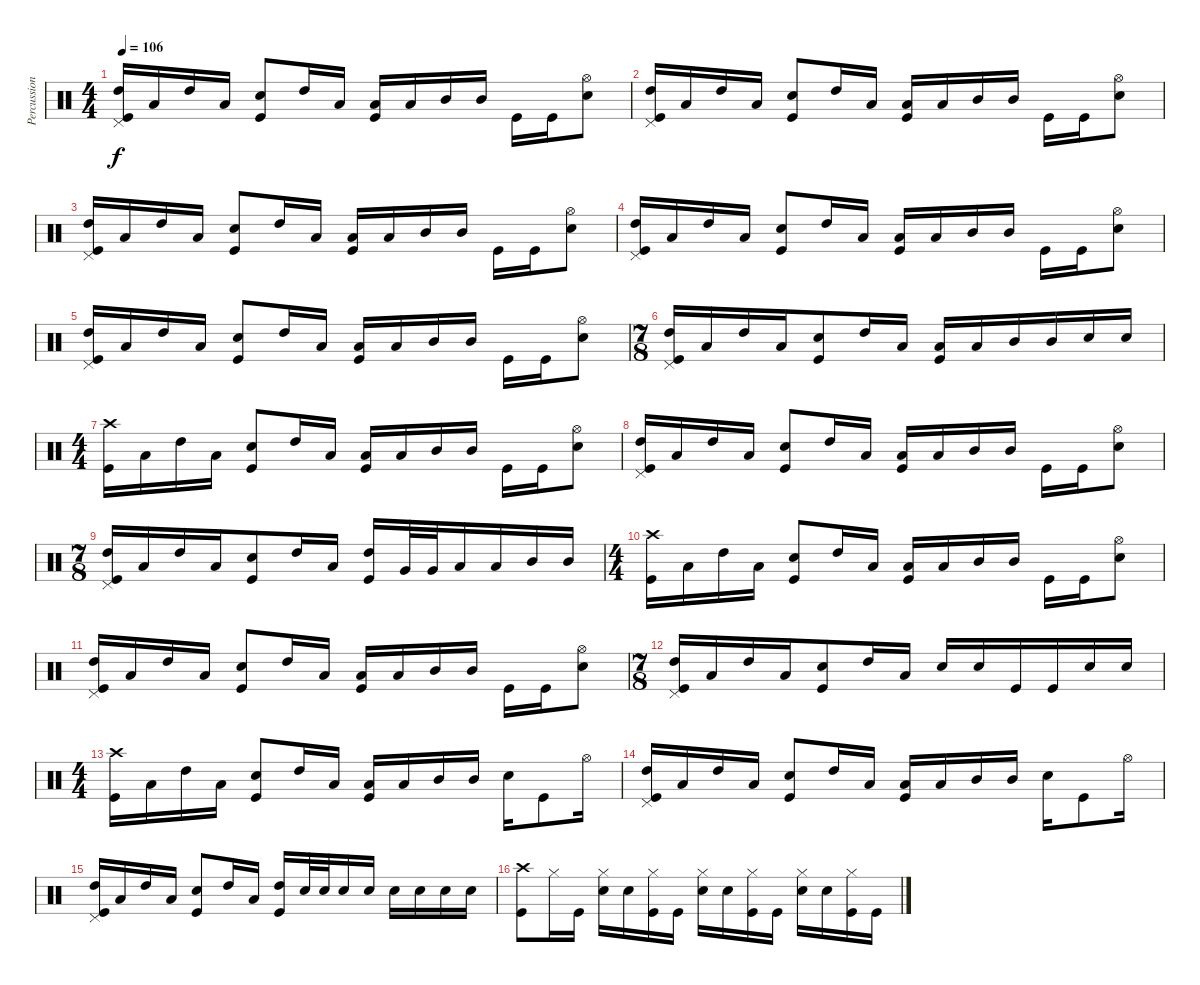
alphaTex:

\track ("Percussion" "Percussion") {instrument percussion}
\staff {score}
\articulation defaults
\ts (4 4)
\tempo 106
\clef neutral
\ks c
("High Tom (hit)" "Kick (hit)" "Pedal Hi-Hat (hit)").16{dy f} "Low Tom (hit)".16 "High Tom (hit)".16 "Low Tom (hit)".16 ("Snare (hit) 2" "Kick (hit)").8 "High Tom (hit)".16 "Low Tom (hit)".16 ("Kick (hit)" "Low Tom (hit)").16 "Low Tom (hit)".16 "Mid Tom (hit)".16 "Mid Tom (hit)".16 "Kick (hit)".16 "Kick (hit)".16 ("Snare (hit) 2" "Hi-Hat (open)").8 |
("High Tom (hit)" "Kick (hit)" "Pedal Hi-Hat (hit)").16 "Low Tom (hit)".16 "High Tom (hit)".16 "Low Tom (hit)".16 ("Snare (hit) 2" "Kick (hit)").8 "High Tom (hit)".16 "Low Tom (hit)".16 ("Kick (hit)" "Low Tom (hit)").16 "Low Tom (hit)".16 "Mid Tom (hit)".16 "Mid Tom (hit)".16 "Kick (hit)".16 "Kick (hit)".16 ("Snare (hit) 2" "Hi-Hat (open)").8 |
("High Tom (hit)" "Kick (hit)" "Pedal Hi-Hat (hit)").16 "Low Tom (hit)".16 "High Tom (hit)".16 "Low Tom (hit)".16 ("Snare (hit) 2" "Kick (hit)").8 "High Tom (hit)".16 "Low Tom (hit)".16 ("Kick (hit)" "Low Tom (hit)").16 "Low Tom (hit)".16 "Mid Tom (hit)".16 "Mid Tom (hit)".16 "Kick (hit)".16 "Kick (hit)".16 ("Snare (hit) 2" "Hi-Hat (open)").8 |
("High Tom (hit)" "Kick (hit)" "Pedal Hi-Hat (hit)").16 "Low Tom (hit)".16 "High Tom (hit)".16 "Low Tom (hit)".16 ("Snare (hit) 2" "Kick (hit)").8 "High Tom (hit)".16 "Low Tom (hit)".16 ("Kick (hit)" "Low Tom (hit)").16 "Low Tom (hit)".16 "Mid Tom (hit)".16 "Mid Tom (hit)".16 "Kick (hit)".16 "Kick (hit)".16 ("Snare (hit) 2" "Hi-Hat (open)").8 |
("High Tom (hit)" "Kick (hit)" "Pedal Hi-Hat (hit)").16 "Low Tom (hit)".16 "High Tom (hit)".16 "Low Tom (hit)".16 ("Snare (hit) 2" "Kick (hit)").8 "High Tom (hit)".16 "Low Tom (hit)".16 ("Kick (hit)" "Low Tom (hit)").16 "Low Tom (hit)".16 "Mid Tom (hit)".16 "Mid Tom (hit)".16 "Kick (hit)".16 "Kick (hit)".16 ("Snare (hit) 2" "Hi-Hat (open)").8 |
\ts (7 8)
("High Tom (hit)" "Kick (hit)" "Pedal Hi-Hat (hit)").16 "Low Tom (hit)".16 "High Tom (hit)".16 "Low Tom (hit)".16 ("Snare (hit) 2" "Kick (hit)").8 "High Tom (hit)".16 "Low Tom (hit)".16 ("Kick (hit)" "Low Tom (hit)").16 "Low Tom (hit)".16 "Mid Tom (hit)".16 "Mid Tom (hit)".16 "Snare (hit) 2".16 "Snare (hit) 2".16 |
\ts (4 4)
("Kick (hit)" "Crash high (hit)").16 "Low Tom (hit)".16 "High Tom (hit)".16 "Low Tom (hit)".16 ("Snare (hit) 2" "Kick (hit)").8 "High Tom (hit)".16 "Low Tom (hit)".16 ("Kick (hit)" "Low Tom (hit)").16 "Low Tom (hit)".16 "Mid Tom (hit)".16 "Mid Tom (hit)".16 "Kick (hit)".16 "Kick (hit)".16 ("Snare (hit) 2" "Hi-Hat (open)").8 |
("High Tom (hit)" "Kick (hit)" "Pedal Hi-Hat (hit)").16 "Low Tom (hit)".16 "High Tom (hit)".16 "Low Tom (hit)".16 ("Snare (hit) 2" "Kick (hit)").8 "High Tom (hit)".16 "Low Tom (hit)".16 ("Kick (hit)" "Low Tom (hit)").16 "Low Tom (hit)".16 "Mid Tom (hit)".16 "Mid Tom (hit)".16 "Kick (hit)".16 "Kick (hit)".16 ("Snare (hit) 2" "Hi-Hat (open)").8 |
\ts (7 8)
("High Tom (hit)" "Kick (hit)" "Pedal Hi-Hat (hit)").16 "Low Tom (hit)".16 "High Tom (hit)".16 "Low Tom (hit)".16 ("Snare (hit) 2" "Kick (hit)").8 "High Tom (hit)".16 "Low Tom (hit)".16 ("Kick (hit)" "High Tom (hit)").16 "Very Low Tom (hit)".32 "Very Low Tom (hit)".32 "Low Tom (hit)".16 "Low Tom (hit)".16 "Mid Tom (hit)".16 "Mid Tom (hit)".16 |
\ts (4 4)
("Kick (hit)" "Crash high (hit)").16 "Low Tom (hit)".16 "High Tom (hit)".16 "Low Tom (hit)".16 ("Snare (hit) 2" "Kick (hit)").8 "High Tom (hit)".16 "Low Tom (hit)".16 ("Kick (hit)" "Low Tom (hit)").16 "Low Tom (hit)".16 "Mid Tom (hit)".16 "Mid Tom (hit)".16 "Kick (hit)".16 "Kick (hit)".16 ("Snare (hit) 2" "Hi-Hat (open)").8 |
("High Tom (hit)" "Kick (hit)" "Pedal Hi-Hat (hit)").16 "Low Tom (hit)".16 "High Tom (hit)".16 "Low Tom (hit)".16 ("Snare (hit) 2" "Kick (hit)").8 "High Tom (hit)".16 "Low Tom (hit)".16 ("Kick (hit)" "Low Tom (hit)").16 "Low Tom (hit)".16 "Mid Tom (hit)".16 "Mid Tom (hit)".16 "Kick (hit)".16 "Kick (hit)".16 ("Snare (hit) 2" "Hi-Hat (open)").8 |
\ts (7 8)
("High Tom (hit)" "Kick (hit)" "Pedal Hi-Hat (hit)").16 "Low Tom (hit)".16 "High Tom (hit)".16 "Low Tom (hit)".16 ("Snare (hit) 2" "Kick (hit)").8 "High Tom (hit)".16 "Low Tom (hit)".16 "Snare (hit) 2".16 "Snare (hit) 2".16 "Kick (hit)".16 "Kick (hit)".16 "Snare (hit) 2".16 "Snare (hit) 2".16 |
\ts (4 4)
("Kick (hit)" "Crash high (hit)").16 "Low Tom (hit)".16 "High Tom (hit)".16 "Low Tom (hit)".16 ("Snare (hit) 2" "Kick (hit)").8 "High Tom (hit)".16 "Low Tom (hit)".16 ("Kick (hit)" "Low Tom (hit)").16 "Low Tom (hit)".16 "Mid Tom (hit)".16 "Mid Tom (hit)".16 "Electric Snare (hit)".16 "Kick (hit)".8 "Hi-Hat (open)".16 |
("High Tom (hit)" "Kick (hit)" "Pedal Hi-Hat (hit)").16 "Low Tom (hit)".16 "High Tom (hit)".16 "Low Tom (hit)".16 ("Snare (hit) 2" "Kick (hit)").8 "High Tom (hit)".16 "Low Tom (hit)".16 ("Kick (hit)" "Low Tom (hit)").16 "Low Tom (hit)".16 "Mid Tom (hit)".16 "Mid Tom (hit)".16 "Electric Snare (hit)".16 "Kick (hit)".8 "Hi-Hat (open)".16 |
("High Tom (hit)" "Kick (hit)" "Pedal Hi-Hat (hit)").16 "Low Tom (hit)".16 "High Tom (hit)".16 "Low Tom (hit)".16 ("Snare (hit) 2" "Kick (hit)").8 "High Tom (hit)".16 "Low Tom (hit)".16 ("High Tom (hit)" "Kick (hit)").16 "Snare (hit) 2".32 "Snare (hit) 2".32 "Snare (hit) 2".16 "Snare (hit) 2".16 "Snare (hit) 2".16 "Snare (hit) 2".16 "Snare (hit) 2".16 "Snare (hit) 2".16 |
("Crash high (hit)" "Kick (hit)").8 "Hi-Hat (closed)".16 "Kick (hit)".16 ("Snare (hit) 2" "Hi-Hat (closed)").16 "Snare (hit) 2".16 ("Kick (hit)" "Hi-Hat (closed)").16 "Kick (hit)".16 ("Snare (hit) 2" "Hi-Hat (closed)").16 "Snare (hit) 2".16 ("Kick (hit)" "Hi-Hat (closed)").16 "Kick (hit)".16 ("Snare (hit) 2" "Hi-Hat (closed)").16 "Snare (hit) 2".16 ("Kick (hit)" "Hi-Hat (closed)").16 "Kick (hit)".16
